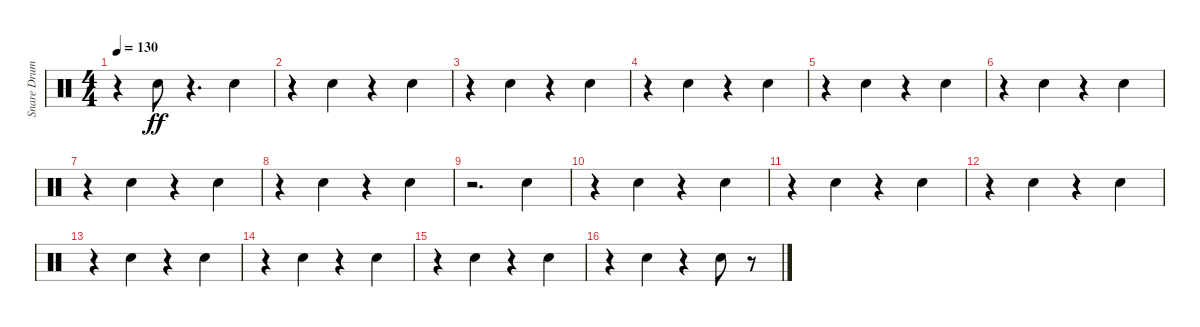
\track ("Snare Drum" "Snare Drum") {instrument percussion}
\staff {score}
\articulation defaults
\ts (4 4)
\tempo 130
\clef neutral
\ks c
r.4{dy ff} "Electric Snare (hit)".8 r.4{d} "Electric Snare (hit)".4 |
r.4 "Electric Snare (hit)".4 r.4 "Electric Snare (hit)".4 |
r.4 "Electric Snare (hit)".4 r.4 "Electric Snare (hit)".4 |
r.4 "Electric Snare (hit)".4 r.4 "Electric Snare (hit)".4 |
r.4 "Electric Snare (hit)".4 r.4 "Electric Snare (hit)".4 |
r.4 "Electric Snare (hit)".4 r.4 "Electric Snare (hit)".4 |
r.4 "Electric Snare (hit)".4 r.4 "Electric Snare (hit)".4 |
r.4 "Electric Snare (hit)".4 r.4 "Electric Snare (hit)".4 |
r.2{d} "Electric Snare (hit)".4 |
r.4 "Electric Snare (hit)".4 r.4 "Electric Snare (hit)".4 |
r.4 "Electric Snare (hit)".4 r.4 "Electric Snare (hit)".4 |
r.4 "Electric Snare (hit)".4 r.4 "Electric Snare (hit)".4 |
r.4 "Electric Snare (hit)".4 r.4 "Electric Snare (hit)".4 |
r.4 "Electric Snare (hit)".4 r.4 "Electric Snare (hit)".4 |
r.4 "Electric Snare (hit)".4 r.4 "Electric Snare (hit)".4 |
r.4 "Electric Snare (hit)".4 r.4 "Electric Snare (hit)".8 r.8
